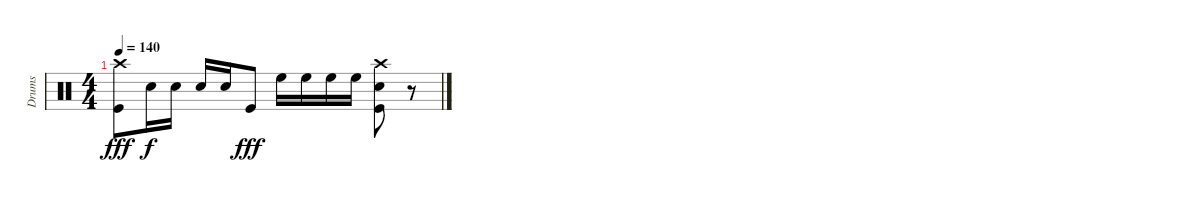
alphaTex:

\track ("Drums" "Drums") {instrument percussion}
\staff {score}
\articulation defaults
\ts (4 4)
\tempo 140
\clef neutral
\ks c
("Crash high (hit)" "Kick (hit)").8{dy fff} "Snare (hit) 2".16{dy f} "Snare (hit) 2".16 "Snare (hit) 2".16 "Snare (hit) 2".16 "Kick (hit)".8{dy fff} "High Floor Tom (hit)".16 "High Floor Tom (hit)".16 "High Floor Tom (hit)".16 "High Floor Tom (hit)".16 ("Crash high (hit)" "Snare (hit) 2" "Kick (hit)").8 r.8
